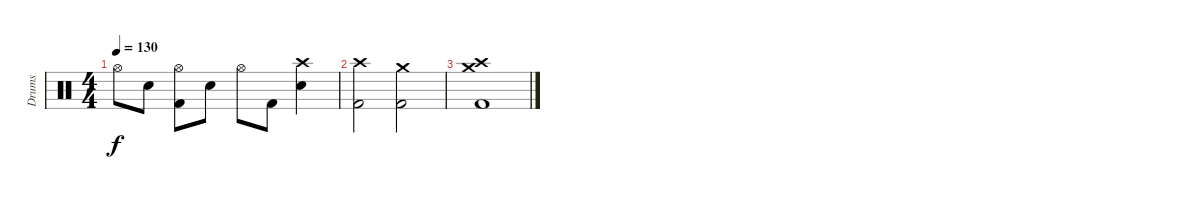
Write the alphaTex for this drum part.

\track ("Drums" "Drums") {instrument percussion}
\staff {score}
\articulation defaults
\ts (4 4)
\tempo 130
\clef neutral
\ks c "Hi-Hat (open)".8{dy f} "Snare (hit) 2".8
("Hi-Hat (open)" "Kick (hit) 2").8 "Snare (hit) 2".8 "Hi-Hat (open)".8 "Kick (hit) 2".8 ("Crash high (hit)" "Snare (hit) 2").4 |
("Crash high (hit)" "Kick (hit) 2").2 ("Crash medium (hit)" "Kick (hit) 2").2 |
("Crash medium (hit)" "Crash high (hit)" "Kick (hit) 2").1
